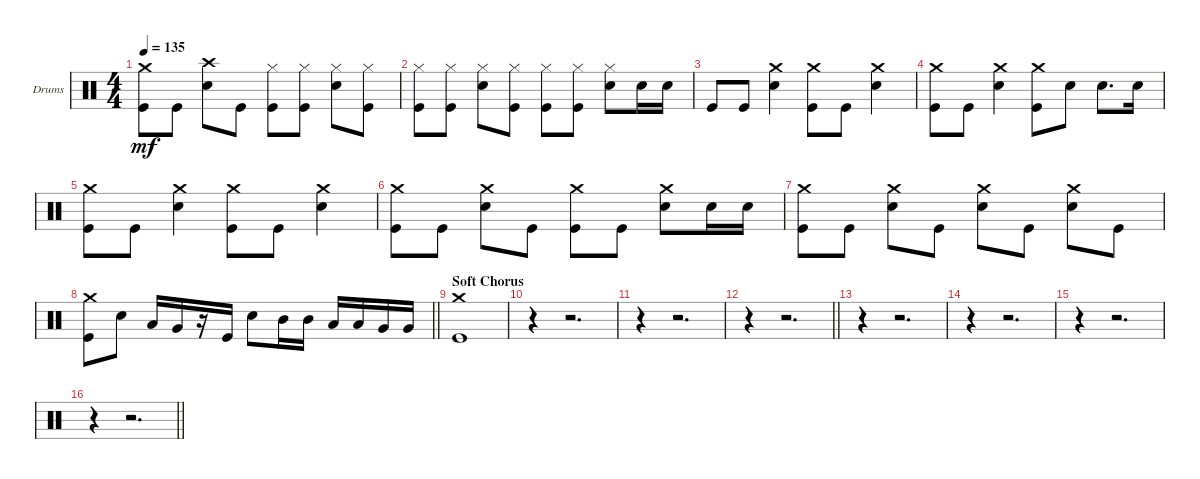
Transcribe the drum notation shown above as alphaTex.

\bracketExtendMode groupsimilarinstruments
\firstSystemTrackNameOrientation horizontal
\otherSystemsTrackNameOrientation horizontal
\track ("Drumkit" "Drums") {instrument percussion}
\staff {score}
\articulation defaults
\ts (4 4)
\tempo 135
\clef neutral
\ks c
("Crash medium (hit)" "Kick (hit)").8{dy mf} "Kick (hit)".8 ("Snare (hit) 2" "Crash high (hit)").8 "Kick (hit)".8 ("Kick (hit)" "Hi-Hat (closed)").8 ("Kick (hit)" "Hi-Hat (closed)").8 ("Snare (hit) 2" "Hi-Hat (closed)").8 ("Kick (hit)" "Hi-Hat (closed)").8 |
("Kick (hit)" "Hi-Hat (closed)").8 ("Kick (hit)" "Hi-Hat (closed)").8 ("Snare (hit) 2" "Hi-Hat (closed)").8 ("Kick (hit)" "Hi-Hat (closed)").8 ("Kick (hit)" "Hi-Hat (closed)").8 ("Kick (hit)" "Hi-Hat (closed)").8 ("Snare (hit) 2" "Hi-Hat (closed)").8 "Snare (hit) 2".16 "Snare (hit) 2".16 |
"Kick (hit)".8 "Kick (hit)".8 ("Snare (hit) 2" "Crash medium (hit)").4 ("Kick (hit)" "Crash medium (hit)").8 "Kick (hit)".8 ("Snare (hit) 2" "Crash medium (hit)").4 |
("Kick (hit)" "Crash medium (hit)").8 "Kick (hit)".8 ("Snare (hit) 2" "Crash medium (hit)").4 ("Kick (hit)" "Crash medium (hit)").8 "Snare (hit) 2".8 "Snare (hit) 2".8{d} "Snare (hit) 2".16 |
("Kick (hit)" "Crash medium (hit)").8 "Kick (hit)".8 ("Snare (hit) 2" "Crash medium (hit)").4 ("Kick (hit)" "Crash medium (hit)").8 "Kick (hit)".8 ("Snare (hit) 2" "Crash medium (hit)").4 |
("Kick (hit)" "Crash medium (hit)").8 "Kick (hit)".8 ("Snare (hit) 2" "Crash medium (hit)").8 "Kick (hit)".8 ("Kick (hit)" "Crash medium (hit)").8 "Kick (hit)".8 ("Snare (hit) 2" "Crash medium (hit)").8 "Snare (hit) 2".16 "Snare (hit) 2".16 |
("Kick (hit)" "Crash medium (hit)").8 "Kick (hit)".8 ("Snare (hit) 2" "Crash medium (hit)").8 "Kick (hit)".8 ("Snare (hit) 2" "Crash medium (hit)").8 "Kick (hit)".8 ("Snare (hit) 2" "Crash medium (hit)").8 "Kick (hit)".8 |
\barLineRight lightlight
("Kick (hit)" "Crash medium (hit)").8 "Snare (hit) 2".8 "Low Tom (hit)".16 "Very Low Tom (hit)".16 r.16 "Kick (hit)".16 "Snare (hit) 2".8 "Mid Tom (hit)".16 "Mid Tom (hit)".16 "Low Tom (hit)".16 "Low Tom (hit)".16 "Very Low Tom (hit)".16 "Very Low Tom (hit)".16 |
\section ("" "Soft Chorus")
("Kick (hit)" "Crash medium (hit)").1 |
r.4 r.2{d} |
r.4 r.2{d} |
\barLineRight lightlight
r.4 r.2{d} |
r.4 r.2{d} |
r.4 r.2{d} |
r.4 r.2{d} |
\barLineRight lightlight
r.4 r.2{d}
